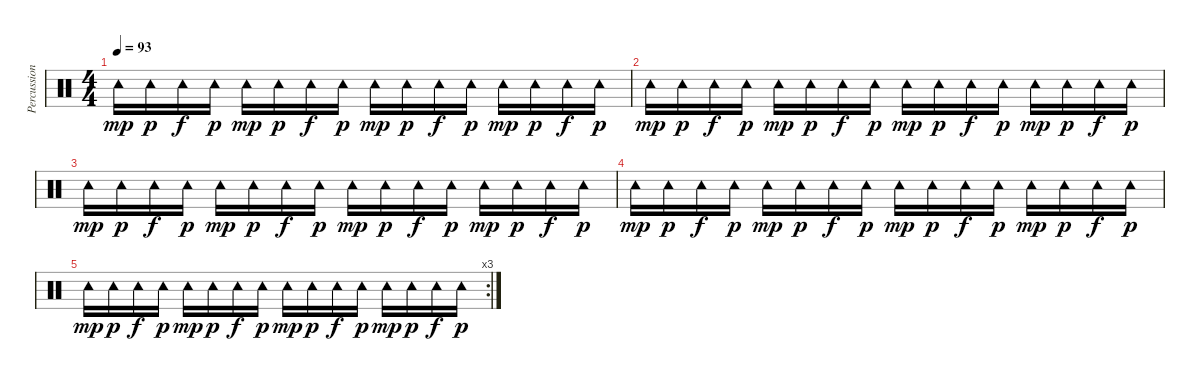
\track ("Percussion" "Percussion") {instrument percussion}
\staff {score}
\articulation defaults
\ts (4 4)
\tempo 93
\clef neutral
\ks c "Tambourine (hit)".16{dy mp} "Tambourine (hit)".16{dy p} "Tambourine (hit)".16{dy f} "Tambourine (hit)".16{dy p} "Tambourine (hit)".16{dy mp} "Tambourine (hit)".16{dy p} "Tambourine (hit)".16{dy f} "Tambourine (hit)".16{dy p} "Tambourine (hit)".16{dy mp} "Tambourine (hit)".16{dy p} "Tambourine (hit)".16{dy f} "Tambourine (hit)".16{dy p} "Tambourine (hit)".16{dy mp} "Tambourine (hit)".16{dy p} "Tambourine (hit)".16{dy f} "Tambourine (hit)".16{dy p}
|
"Tambourine (hit)".16{dy mp} "Tambourine (hit)".16{dy p} "Tambourine (hit)".16{dy f} "Tambourine (hit)".16{dy p} "Tambourine (hit)".16{dy mp} "Tambourine (hit)".16{dy p} "Tambourine (hit)".16{dy f} "Tambourine (hit)".16{dy p} "Tambourine (hit)".16{dy mp} "Tambourine (hit)".16{dy p} "Tambourine (hit)".16{dy f} "Tambourine (hit)".16{dy p} "Tambourine (hit)".16{dy mp} "Tambourine (hit)".16{dy p} "Tambourine (hit)".16{dy f} "Tambourine (hit)".16{dy p} |
"Tambourine (hit)".16{dy mp} "Tambourine (hit)".16{dy p} "Tambourine (hit)".16{dy f} "Tambourine (hit)".16{dy p} "Tambourine (hit)".16{dy mp} "Tambourine (hit)".16{dy p} "Tambourine (hit)".16{dy f} "Tambourine (hit)".16{dy p} "Tambourine (hit)".16{dy mp} "Tambourine (hit)".16{dy p} "Tambourine (hit)".16{dy f} "Tambourine (hit)".16{dy p} "Tambourine (hit)".16{dy mp} "Tambourine (hit)".16{dy p} "Tambourine (hit)".16{dy f} "Tambourine (hit)".16{dy p} |
"Tambourine (hit)".16{dy mp} "Tambourine (hit)".16{dy p} "Tambourine (hit)".16{dy f} "Tambourine (hit)".16{dy p} "Tambourine (hit)".16{dy mp} "Tambourine (hit)".16{dy p} "Tambourine (hit)".16{dy f} "Tambourine (hit)".16{dy p} "Tambourine (hit)".16{dy mp} "Tambourine (hit)".16{dy p} "Tambourine (hit)".16{dy f} "Tambourine (hit)".16{dy p} "Tambourine (hit)".16{dy mp} "Tambourine (hit)".16{dy p} "Tambourine (hit)".16{dy f} "Tambourine (hit)".16{dy p} |
\rc 3 "Tambourine (hit)".16{dy mp} "Tambourine (hit)".16{dy p} "Tambourine (hit)".16{dy f} "Tambourine (hit)".16{dy p} "Tambourine (hit)".16{dy mp} "Tambourine (hit)".16{dy p} "Tambourine (hit)".16{dy f} "Tambourine (hit)".16{dy p} "Tambourine (hit)".16{dy mp} "Tambourine (hit)".16{dy p} "Tambourine (hit)".16{dy f} "Tambourine (hit)".16{dy p} "Tambourine (hit)".16{dy mp} "Tambourine (hit)".16{dy p} "Tambourine (hit)".16{dy f} "Tambourine (hit)".16{dy p}
